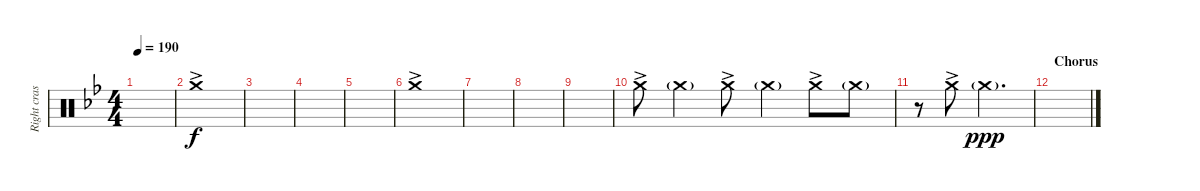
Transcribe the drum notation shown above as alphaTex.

\track ("Right crash" "Right cras") {instrument percussion}
\staff {score}
\articulation defaults
\ts (4 4)
\tempo 190
\clef neutral
\ks bb
|
"Crash medium (hit)"{ac}.1 |
|
|
|
"Crash medium (hit)"{ac}.1 |
|
|
|
"Crash medium (hit)"{ac}.8 "Crash medium (hit)"{g}.4 "Crash medium (hit)"{ac}.8 "Crash medium (hit)"{g}.4 "Crash medium (hit)"{ac}.8 "Crash medium (hit)"{g}.8 |
r.8 "Crash medium (hit)"{ac}.8 "Crash medium (hit)"{g}.2{d dy ppp} |
\section ("" "Chorus")
